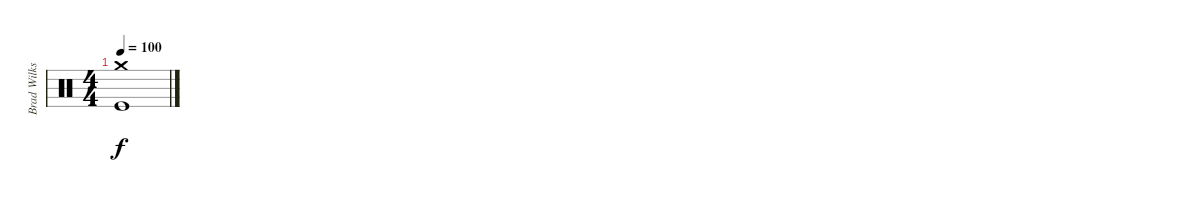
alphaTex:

\track ("Brad Wilks (Percussion)" "Brad Wilks") {instrument percussion}
\staff {score}
\articulation defaults
\ts (4 4)
\tempo 100
\clef neutral
\ks c
("Crash medium (hit)" "Kick (hit)").1{dy f}
